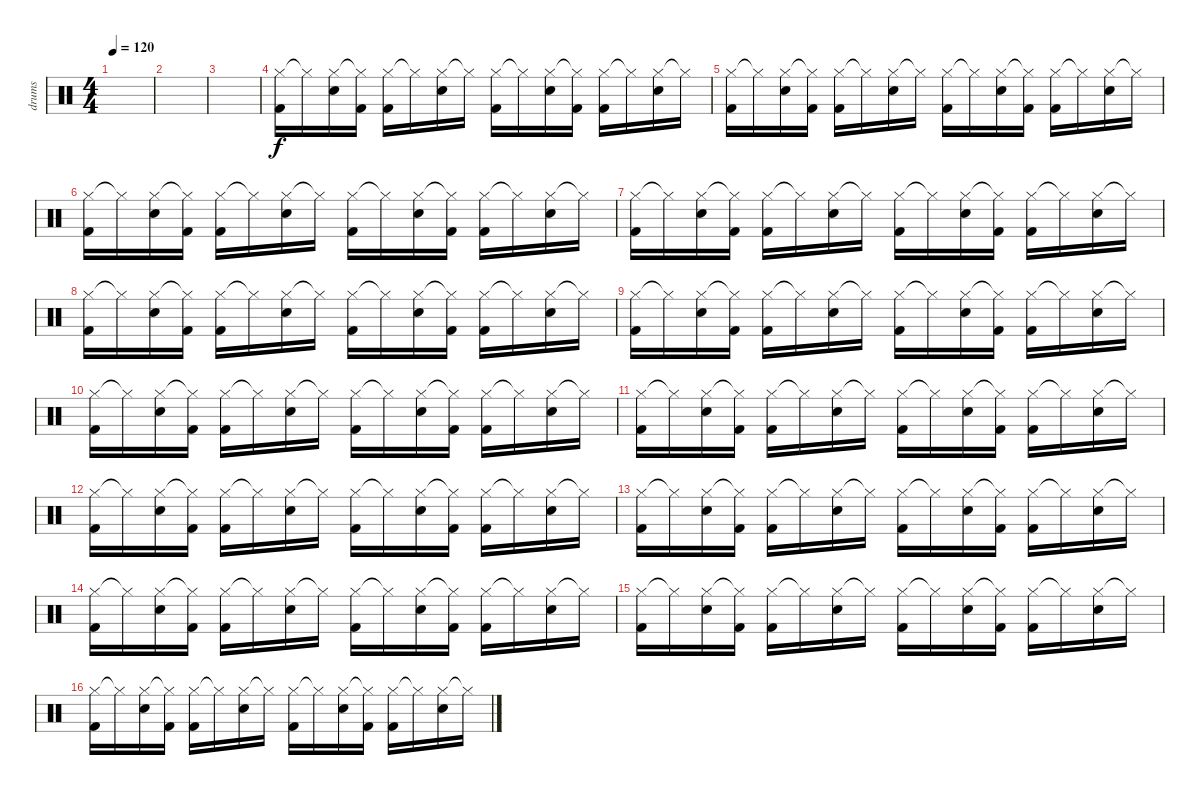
\track ("drums" "drums") {instrument percussion}
\staff {score}
\articulation defaults
\ts (4 4)
\tempo 120
\clef neutral
\ks c
|
|
|
("Hi-Hat (closed)" "Kick (hit) 2").16 "Hi-Hat (closed)"{t}.16 ("Hi-Hat (closed)" "Snare (hit) 2").16 ("Hi-Hat (closed)"{t} "Kick (hit) 2").16 ("Hi-Hat (closed)" "Kick (hit) 2").16 "Hi-Hat (closed)"{t}.16 ("Hi-Hat (closed)" "Snare (hit) 2").16 "Hi-Hat (closed)"{t}.16 ("Hi-Hat (closed)" "Kick (hit) 2").16 "Hi-Hat (closed)"{t}.16 ("Hi-Hat (closed)" "Snare (hit) 2").16 ("Hi-Hat (closed)"{t} "Kick (hit) 2").16 ("Hi-Hat (closed)" "Kick (hit) 2").16 "Hi-Hat (closed)"{t}.16 ("Hi-Hat (closed)" "Snare (hit) 2").16 "Hi-Hat (closed)"{t}.16 |
("Hi-Hat (closed)" "Kick (hit) 2").16 "Hi-Hat (closed)"{t}.16 ("Hi-Hat (closed)" "Snare (hit) 2").16 ("Hi-Hat (closed)"{t} "Kick (hit) 2").16 ("Hi-Hat (closed)" "Kick (hit) 2").16 "Hi-Hat (closed)"{t}.16 ("Hi-Hat (closed)" "Snare (hit) 2").16 "Hi-Hat (closed)"{t}.16 ("Hi-Hat (closed)" "Kick (hit) 2").16 "Hi-Hat (closed)"{t}.16 ("Hi-Hat (closed)" "Snare (hit) 2").16 ("Hi-Hat (closed)"{t} "Kick (hit) 2").16 ("Hi-Hat (closed)" "Kick (hit) 2").16 "Hi-Hat (closed)"{t}.16 ("Hi-Hat (closed)" "Snare (hit) 2").16 "Hi-Hat (closed)"{t}.16 |
("Hi-Hat (closed)" "Kick (hit) 2").16 "Hi-Hat (closed)"{t}.16 ("Hi-Hat (closed)" "Snare (hit) 2").16 ("Hi-Hat (closed)"{t} "Kick (hit) 2").16 ("Hi-Hat (closed)" "Kick (hit) 2").16 "Hi-Hat (closed)"{t}.16 ("Hi-Hat (closed)" "Snare (hit) 2").16 "Hi-Hat (closed)"{t}.16 ("Hi-Hat (closed)" "Kick (hit) 2").16 "Hi-Hat (closed)"{t}.16 ("Hi-Hat (closed)" "Snare (hit) 2").16 ("Hi-Hat (closed)"{t} "Kick (hit) 2").16 ("Hi-Hat (closed)" "Kick (hit) 2").16 "Hi-Hat (closed)"{t}.16 ("Hi-Hat (closed)" "Snare (hit) 2").16 "Hi-Hat (closed)"{t}.16 |
("Hi-Hat (closed)" "Kick (hit) 2").16 "Hi-Hat (closed)"{t}.16 ("Hi-Hat (closed)" "Snare (hit) 2").16 ("Hi-Hat (closed)"{t} "Kick (hit) 2").16 ("Hi-Hat (closed)" "Kick (hit) 2").16 "Hi-Hat (closed)"{t}.16 ("Hi-Hat (closed)" "Snare (hit) 2").16 "Hi-Hat (closed)"{t}.16 ("Hi-Hat (closed)" "Kick (hit) 2").16 "Hi-Hat (closed)"{t}.16 ("Hi-Hat (closed)" "Snare (hit) 2").16 ("Hi-Hat (closed)"{t} "Kick (hit) 2").16 ("Hi-Hat (closed)" "Kick (hit) 2").16 "Hi-Hat (closed)"{t}.16 ("Hi-Hat (closed)" "Snare (hit) 2").16 "Hi-Hat (closed)"{t}.16 |
("Hi-Hat (closed)" "Kick (hit) 2").16 "Hi-Hat (closed)"{t}.16 ("Hi-Hat (closed)" "Snare (hit) 2").16 ("Hi-Hat (closed)"{t} "Kick (hit) 2").16 ("Hi-Hat (closed)" "Kick (hit) 2").16 "Hi-Hat (closed)"{t}.16 ("Hi-Hat (closed)" "Snare (hit) 2").16 "Hi-Hat (closed)"{t}.16 ("Hi-Hat (closed)" "Kick (hit) 2").16 "Hi-Hat (closed)"{t}.16 ("Hi-Hat (closed)" "Snare (hit) 2").16 ("Hi-Hat (closed)"{t} "Kick (hit) 2").16 ("Hi-Hat (closed)" "Kick (hit) 2").16 "Hi-Hat (closed)"{t}.16 ("Hi-Hat (closed)" "Snare (hit) 2").16 "Hi-Hat (closed)"{t}.16 |
("Hi-Hat (closed)" "Kick (hit) 2").16 "Hi-Hat (closed)"{t}.16 ("Hi-Hat (closed)" "Snare (hit) 2").16 ("Hi-Hat (closed)"{t} "Kick (hit) 2").16 ("Hi-Hat (closed)" "Kick (hit) 2").16 "Hi-Hat (closed)"{t}.16 ("Hi-Hat (closed)" "Snare (hit) 2").16 "Hi-Hat (closed)"{t}.16 ("Hi-Hat (closed)" "Kick (hit) 2").16 "Hi-Hat (closed)"{t}.16 ("Hi-Hat (closed)" "Snare (hit) 2").16 ("Hi-Hat (closed)"{t} "Kick (hit) 2").16 ("Hi-Hat (closed)" "Kick (hit) 2").16 "Hi-Hat (closed)"{t}.16 ("Hi-Hat (closed)" "Snare (hit) 2").16 "Hi-Hat (closed)"{t}.16 |
("Hi-Hat (closed)" "Kick (hit) 2").16 "Hi-Hat (closed)"{t}.16 ("Hi-Hat (closed)" "Snare (hit) 2").16 ("Hi-Hat (closed)"{t} "Kick (hit) 2").16 ("Hi-Hat (closed)" "Kick (hit) 2").16 "Hi-Hat (closed)"{t}.16 ("Hi-Hat (closed)" "Snare (hit) 2").16 "Hi-Hat (closed)"{t}.16 ("Hi-Hat (closed)" "Kick (hit) 2").16 "Hi-Hat (closed)"{t}.16 ("Hi-Hat (closed)" "Snare (hit) 2").16 ("Hi-Hat (closed)"{t} "Kick (hit) 2").16 ("Hi-Hat (closed)" "Kick (hit) 2").16 "Hi-Hat (closed)"{t}.16 ("Hi-Hat (closed)" "Snare (hit) 2").16 "Hi-Hat (closed)"{t}.16 |
("Hi-Hat (closed)" "Kick (hit) 2").16 "Hi-Hat (closed)"{t}.16 ("Hi-Hat (closed)" "Snare (hit) 2").16 ("Hi-Hat (closed)"{t} "Kick (hit) 2").16 ("Hi-Hat (closed)" "Kick (hit) 2").16 "Hi-Hat (closed)"{t}.16 ("Hi-Hat (closed)" "Snare (hit) 2").16 "Hi-Hat (closed)"{t}.16 ("Hi-Hat (closed)" "Kick (hit) 2").16 "Hi-Hat (closed)"{t}.16 ("Hi-Hat (closed)" "Snare (hit) 2").16 ("Hi-Hat (closed)"{t} "Kick (hit) 2").16 ("Hi-Hat (closed)" "Kick (hit) 2").16 "Hi-Hat (closed)"{t}.16 ("Hi-Hat (closed)" "Snare (hit) 2").16 "Hi-Hat (closed)"{t}.16 |
("Hi-Hat (closed)" "Kick (hit) 2").16 "Hi-Hat (closed)"{t}.16 ("Hi-Hat (closed)" "Snare (hit) 2").16 ("Hi-Hat (closed)"{t} "Kick (hit) 2").16 ("Hi-Hat (closed)" "Kick (hit) 2").16 "Hi-Hat (closed)"{t}.16 ("Hi-Hat (closed)" "Snare (hit) 2").16 "Hi-Hat (closed)"{t}.16 ("Hi-Hat (closed)" "Kick (hit) 2").16 "Hi-Hat (closed)"{t}.16 ("Hi-Hat (closed)" "Snare (hit) 2").16 ("Hi-Hat (closed)"{t} "Kick (hit) 2").16 ("Hi-Hat (closed)" "Kick (hit) 2").16 "Hi-Hat (closed)"{t}.16 ("Hi-Hat (closed)" "Snare (hit) 2").16 "Hi-Hat (closed)"{t}.16 |
("Hi-Hat (closed)" "Kick (hit) 2").16 "Hi-Hat (closed)"{t}.16 ("Hi-Hat (closed)" "Snare (hit) 2").16 ("Hi-Hat (closed)"{t} "Kick (hit) 2").16 ("Hi-Hat (closed)" "Kick (hit) 2").16 "Hi-Hat (closed)"{t}.16 ("Hi-Hat (closed)" "Snare (hit) 2").16 "Hi-Hat (closed)"{t}.16 ("Hi-Hat (closed)" "Kick (hit) 2").16 "Hi-Hat (closed)"{t}.16 ("Hi-Hat (closed)" "Snare (hit) 2").16 ("Hi-Hat (closed)"{t} "Kick (hit) 2").16 ("Hi-Hat (closed)" "Kick (hit) 2").16 "Hi-Hat (closed)"{t}.16 ("Hi-Hat (closed)" "Snare (hit) 2").16 "Hi-Hat (closed)"{t}.16 |
("Hi-Hat (closed)" "Kick (hit) 2").16 "Hi-Hat (closed)"{t}.16 ("Hi-Hat (closed)" "Snare (hit) 2").16 ("Hi-Hat (closed)"{t} "Kick (hit) 2").16 ("Hi-Hat (closed)" "Kick (hit) 2").16 "Hi-Hat (closed)"{t}.16 ("Hi-Hat (closed)" "Snare (hit) 2").16 "Hi-Hat (closed)"{t}.16 ("Hi-Hat (closed)" "Kick (hit) 2").16 "Hi-Hat (closed)"{t}.16 ("Hi-Hat (closed)" "Snare (hit) 2").16 ("Hi-Hat (closed)"{t} "Kick (hit) 2").16 ("Hi-Hat (closed)" "Kick (hit) 2").16 "Hi-Hat (closed)"{t}.16 ("Hi-Hat (closed)" "Snare (hit) 2").16 "Hi-Hat (closed)"{t}.16 |
("Hi-Hat (closed)" "Kick (hit) 2").16 "Hi-Hat (closed)"{t}.16 ("Hi-Hat (closed)" "Snare (hit) 2").16 ("Hi-Hat (closed)"{t} "Kick (hit) 2").16 ("Hi-Hat (closed)" "Kick (hit) 2").16 "Hi-Hat (closed)"{t}.16 ("Hi-Hat (closed)" "Snare (hit) 2").16 "Hi-Hat (closed)"{t}.16 ("Hi-Hat (closed)" "Kick (hit) 2").16 "Hi-Hat (closed)"{t}.16 ("Hi-Hat (closed)" "Snare (hit) 2").16 ("Hi-Hat (closed)"{t} "Kick (hit) 2").16 ("Hi-Hat (closed)" "Kick (hit) 2").16 "Hi-Hat (closed)"{t}.16 ("Hi-Hat (closed)" "Snare (hit) 2").16 "Hi-Hat (closed)"{t}.16 |
("Hi-Hat (closed)" "Kick (hit) 2").16 "Hi-Hat (closed)"{t}.16 ("Hi-Hat (closed)" "Snare (hit) 2").16 ("Hi-Hat (closed)"{t} "Kick (hit) 2").16 ("Hi-Hat (closed)" "Kick (hit) 2").16 "Hi-Hat (closed)"{t}.16 ("Hi-Hat (closed)" "Snare (hit) 2").16 "Hi-Hat (closed)"{t}.16 ("Hi-Hat (closed)" "Kick (hit) 2").16 "Hi-Hat (closed)"{t}.16 ("Hi-Hat (closed)" "Snare (hit) 2").16 ("Hi-Hat (closed)"{t} "Kick (hit) 2").16 ("Hi-Hat (closed)" "Kick (hit) 2").16 "Hi-Hat (closed)"{t}.16 ("Hi-Hat (closed)" "Snare (hit) 2").16 "Hi-Hat (closed)"{t}.16
